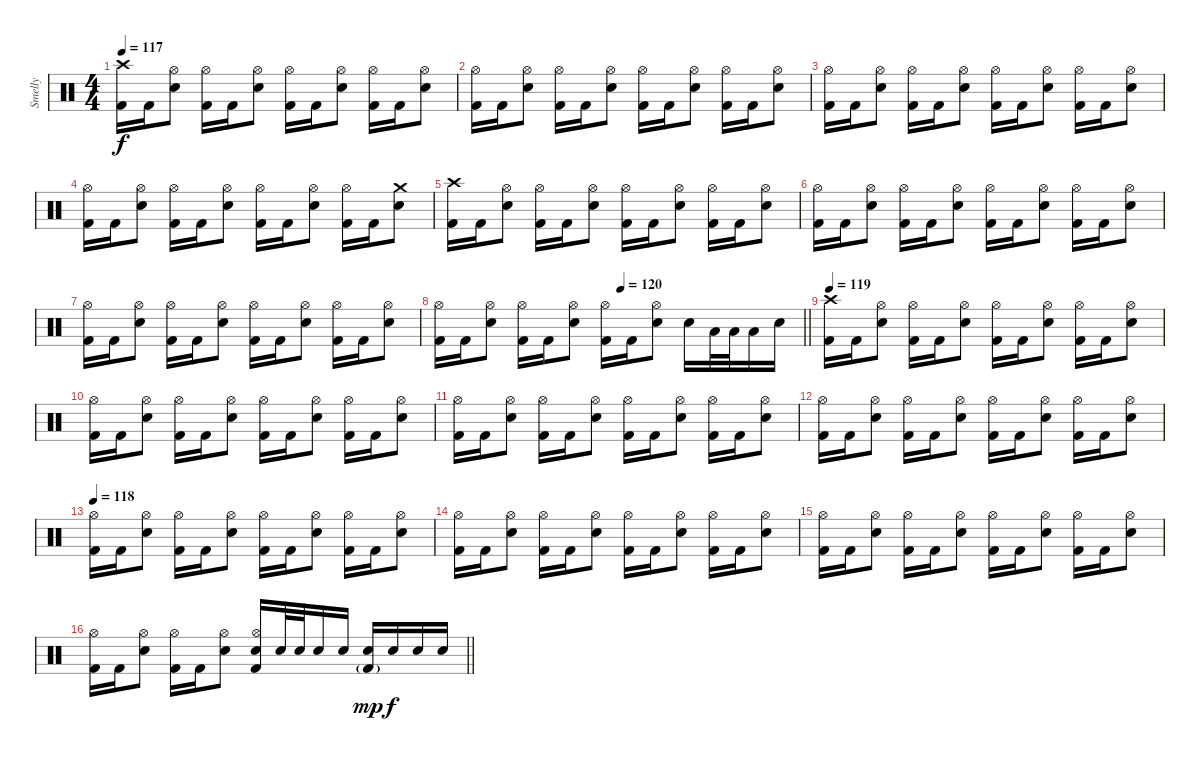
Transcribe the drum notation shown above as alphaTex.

\track ("Smelly" "Smelly") {instrument percussion}
\staff {score}
\articulation defaults
\ts (4 4)
\section ("" "")
\tempo 117
\clef neutral
\ks c
("Crash high (hit)" "Kick (hit) 2").16{dy f} "Kick (hit) 2".16 ("Hi-Hat (open)" "Electric Snare (hit)").8 ("Hi-Hat (open)" "Kick (hit) 2").16 "Kick (hit) 2".16 ("Hi-Hat (open)" "Electric Snare (hit)").8 ("Hi-Hat (open)" "Kick (hit) 2").16 "Kick (hit) 2".16 ("Hi-Hat (open)" "Electric Snare (hit)").8 ("Hi-Hat (open)" "Kick (hit) 2").16 "Kick (hit) 2".16 ("Hi-Hat (open)" "Electric Snare (hit)").8 |
("Hi-Hat (open)" "Kick (hit) 2").16 "Kick (hit) 2".16 ("Hi-Hat (open)" "Electric Snare (hit)").8 ("Hi-Hat (open)" "Kick (hit) 2").16 "Kick (hit) 2".16 ("Hi-Hat (open)" "Electric Snare (hit)").8 ("Hi-Hat (open)" "Kick (hit) 2").16 "Kick (hit) 2".16 ("Hi-Hat (open)" "Electric Snare (hit)").8 ("Hi-Hat (open)" "Kick (hit) 2").16 "Kick (hit) 2".16 ("Hi-Hat (open)" "Electric Snare (hit)").8 |
("Hi-Hat (open)" "Kick (hit) 2").16 "Kick (hit) 2".16 ("Hi-Hat (open)" "Electric Snare (hit)").8 ("Hi-Hat (open)" "Kick (hit) 2").16 "Kick (hit) 2".16 ("Hi-Hat (open)" "Electric Snare (hit)").8 ("Hi-Hat (open)" "Kick (hit) 2").16 "Kick (hit) 2".16 ("Hi-Hat (open)" "Electric Snare (hit)").8 ("Hi-Hat (open)" "Kick (hit) 2").16 "Kick (hit) 2".16 ("Hi-Hat (open)" "Electric Snare (hit)").8 |
("Hi-Hat (open)" "Kick (hit) 2").16 "Kick (hit) 2".16 ("Hi-Hat (open)" "Electric Snare (hit)").8 ("Hi-Hat (open)" "Kick (hit) 2").16 "Kick (hit) 2".16 ("Hi-Hat (open)" "Electric Snare (hit)").8 ("Hi-Hat (open)" "Kick (hit) 2").16 "Kick (hit) 2".16 ("Hi-Hat (open)" "Electric Snare (hit)").8 ("Hi-Hat (open)" "Kick (hit) 2").16 "Kick (hit) 2".16 ("Crash medium (hit)" "Electric Snare (hit)").8 |
("Crash high (hit)" "Kick (hit) 2").16 "Kick (hit) 2".16 ("Hi-Hat (open)" "Electric Snare (hit)").8 ("Hi-Hat (open)" "Kick (hit) 2").16 "Kick (hit) 2".16 ("Hi-Hat (open)" "Electric Snare (hit)").8 ("Hi-Hat (open)" "Kick (hit) 2").16 "Kick (hit) 2".16 ("Hi-Hat (open)" "Electric Snare (hit)").8 ("Hi-Hat (open)" "Kick (hit) 2").16 "Kick (hit) 2".16 ("Hi-Hat (open)" "Electric Snare (hit)").8 |
("Hi-Hat (open)" "Kick (hit) 2").16 "Kick (hit) 2".16 ("Hi-Hat (open)" "Electric Snare (hit)").8 ("Hi-Hat (open)" "Kick (hit) 2").16 "Kick (hit) 2".16 ("Hi-Hat (open)" "Electric Snare (hit)").8 ("Hi-Hat (open)" "Kick (hit) 2").16 "Kick (hit) 2".16 ("Hi-Hat (open)" "Electric Snare (hit)").8 ("Hi-Hat (open)" "Kick (hit) 2").16 "Kick (hit) 2".16 ("Hi-Hat (open)" "Electric Snare (hit)").8 |
("Hi-Hat (open)" "Kick (hit) 2").16 "Kick (hit) 2".16 ("Hi-Hat (open)" "Electric Snare (hit)").8 ("Hi-Hat (open)" "Kick (hit) 2").16 "Kick (hit) 2".16 ("Hi-Hat (open)" "Electric Snare (hit)").8 ("Hi-Hat (open)" "Kick (hit) 2").16 "Kick (hit) 2".16 ("Hi-Hat (open)" "Electric Snare (hit)").8 ("Hi-Hat (open)" "Kick (hit) 2").16 "Kick (hit) 2".16 ("Hi-Hat (open)" "Electric Snare (hit)").8 |
\tempo (120 0.5)
\barLineRight lightlight
("Hi-Hat (open)" "Kick (hit) 2").16 "Kick (hit) 2".16 ("Hi-Hat (open)" "Electric Snare (hit)").8 ("Hi-Hat (open)" "Kick (hit) 2").16 "Kick (hit) 2".16 ("Hi-Hat (open)" "Electric Snare (hit)").8 ("Hi-Hat (open)" "Kick (hit) 2").16 "Kick (hit) 2".16 ("Hi-Hat (open)" "Electric Snare (hit)").8 "Electric Snare (hit)".16 "Low Tom (hit)".32 "Low Tom (hit)".32 "Low Tom (hit)".16 "Electric Snare (hit)".16 |
\tempo 119
("Crash high (hit)" "Kick (hit) 2").16 "Kick (hit) 2".16 ("Hi-Hat (open)" "Electric Snare (hit)").8 ("Hi-Hat (open)" "Kick (hit) 2").16 "Kick (hit) 2".16 ("Hi-Hat (open)" "Electric Snare (hit)").8 ("Hi-Hat (open)" "Kick (hit) 2").16 "Kick (hit) 2".16 ("Hi-Hat (open)" "Electric Snare (hit)").8 ("Hi-Hat (open)" "Kick (hit) 2").16 "Kick (hit) 2".16 ("Hi-Hat (open)" "Electric Snare (hit)").8 |
("Hi-Hat (open)" "Kick (hit) 2").16 "Kick (hit) 2".16 ("Hi-Hat (open)" "Electric Snare (hit)").8 ("Hi-Hat (open)" "Kick (hit) 2").16 "Kick (hit) 2".16 ("Hi-Hat (open)" "Electric Snare (hit)").8 ("Hi-Hat (open)" "Kick (hit) 2").16 "Kick (hit) 2".16 ("Hi-Hat (open)" "Electric Snare (hit)").8 ("Hi-Hat (open)" "Kick (hit) 2").16 "Kick (hit) 2".16 ("Hi-Hat (open)" "Electric Snare (hit)").8 |
("Hi-Hat (open)" "Kick (hit) 2").16 "Kick (hit) 2".16 ("Hi-Hat (open)" "Electric Snare (hit)").8 ("Hi-Hat (open)" "Kick (hit) 2").16 "Kick (hit) 2".16 ("Hi-Hat (open)" "Electric Snare (hit)").8 ("Hi-Hat (open)" "Kick (hit) 2").16 "Kick (hit) 2".16 ("Hi-Hat (open)" "Electric Snare (hit)").8 ("Hi-Hat (open)" "Kick (hit) 2").16 "Kick (hit) 2".16 ("Hi-Hat (open)" "Electric Snare (hit)").8 |
("Hi-Hat (open)" "Kick (hit) 2").16 "Kick (hit) 2".16 ("Hi-Hat (open)" "Electric Snare (hit)").8 ("Hi-Hat (open)" "Kick (hit) 2").16 "Kick (hit) 2".16 ("Hi-Hat (open)" "Electric Snare (hit)").8 ("Hi-Hat (open)" "Kick (hit) 2").16 "Kick (hit) 2".16 ("Hi-Hat (open)" "Electric Snare (hit)").8 ("Hi-Hat (open)" "Kick (hit) 2").16 "Kick (hit) 2".16 ("Hi-Hat (open)" "Electric Snare (hit)").8 |
\tempo 118
("Hi-Hat (open)" "Kick (hit) 2").16 "Kick (hit) 2".16 ("Hi-Hat (open)" "Electric Snare (hit)").8 ("Hi-Hat (open)" "Kick (hit) 2").16 "Kick (hit) 2".16 ("Hi-Hat (open)" "Electric Snare (hit)").8 ("Hi-Hat (open)" "Kick (hit) 2").16 "Kick (hit) 2".16 ("Hi-Hat (open)" "Electric Snare (hit)").8 ("Hi-Hat (open)" "Kick (hit) 2").16 "Kick (hit) 2".16 ("Hi-Hat (open)" "Electric Snare (hit)").8 |
("Hi-Hat (open)" "Kick (hit) 2").16 "Kick (hit) 2".16 ("Hi-Hat (open)" "Electric Snare (hit)").8 ("Hi-Hat (open)" "Kick (hit) 2").16 "Kick (hit) 2".16 ("Hi-Hat (open)" "Electric Snare (hit)").8 ("Hi-Hat (open)" "Kick (hit) 2").16 "Kick (hit) 2".16 ("Hi-Hat (open)" "Electric Snare (hit)").8 ("Hi-Hat (open)" "Kick (hit) 2").16 "Kick (hit) 2".16 ("Hi-Hat (open)" "Electric Snare (hit)").8 |
("Hi-Hat (open)" "Kick (hit) 2").16 "Kick (hit) 2".16 ("Hi-Hat (open)" "Electric Snare (hit)").8 ("Hi-Hat (open)" "Kick (hit) 2").16 "Kick (hit) 2".16 ("Hi-Hat (open)" "Electric Snare (hit)").8 ("Hi-Hat (open)" "Kick (hit) 2").16 "Kick (hit) 2".16 ("Hi-Hat (open)" "Electric Snare (hit)").8 ("Hi-Hat (open)" "Kick (hit) 2").16 "Kick (hit) 2".16 ("Hi-Hat (open)" "Electric Snare (hit)").8 |
\barLineRight lightlight
("Hi-Hat (open)" "Kick (hit) 2").16 "Kick (hit) 2".16 ("Hi-Hat (open)" "Electric Snare (hit)").8 ("Hi-Hat (open)" "Kick (hit) 2").16 "Kick (hit) 2".16 ("Hi-Hat (open)" "Electric Snare (hit)").8 ("Hi-Hat (open)" "Electric Snare (hit)" "Kick (hit) 2").16 "Electric Snare (hit)".32 "Electric Snare (hit)".32 "Electric Snare (hit)".16 "Electric Snare (hit)".16 ("Electric Snare (hit)" "Kick (hit) 2"{g}).16{dy mp} "Electric Snare (hit)".16{dy f} "Electric Snare (hit)".16 "Electric Snare (hit)".16
